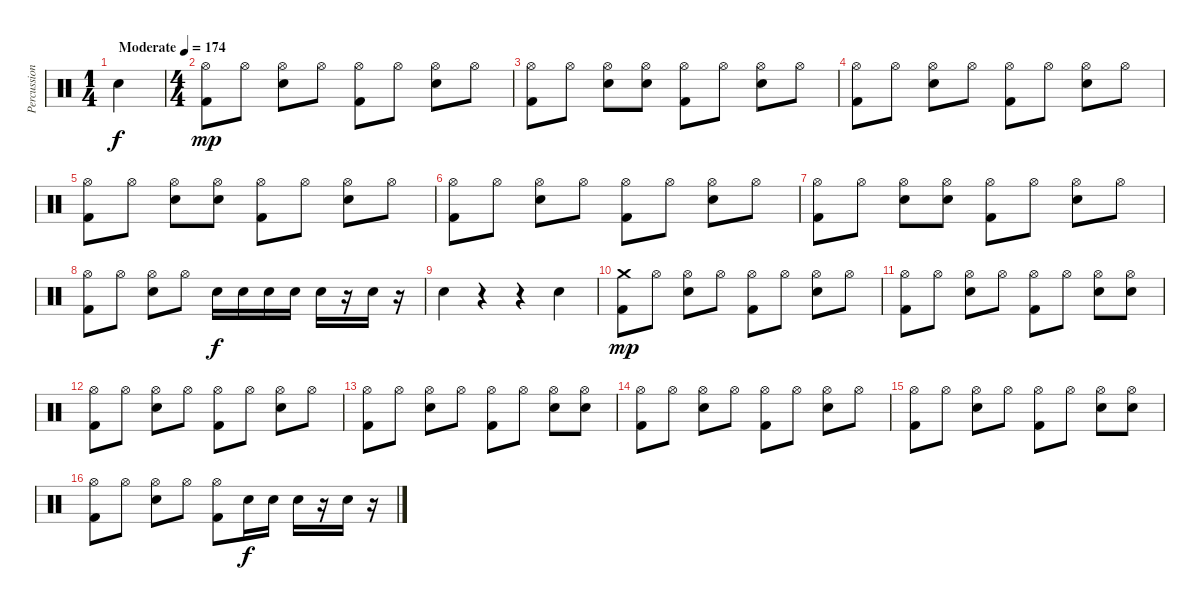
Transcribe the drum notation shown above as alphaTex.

\track ("Percussion" "Percussion") {instrument percussion}
\staff {score}
\articulation defaults
\ts (1 4)
\tempo (174 "Moderate")
\clef neutral
\ks c "Electric Snare (hit)".4{dy f}
|
\ts (4 4)
("Hi-Hat (open)" "Kick (hit) 2").8{dy mp} "Hi-Hat (open)".8 ("Hi-Hat (open)" "Electric Snare (hit)").8 "Hi-Hat (open)".8 ("Hi-Hat (open)" "Kick (hit) 2").8 "Hi-Hat (open)".8 ("Hi-Hat (open)" "Electric Snare (hit)").8 "Hi-Hat (open)".8 |
("Hi-Hat (open)" "Kick (hit) 2").8 "Hi-Hat (open)".8 ("Hi-Hat (open)" "Electric Snare (hit)").8 ("Hi-Hat (open)" "Electric Snare (hit)").8 ("Hi-Hat (open)" "Kick (hit) 2").8 "Hi-Hat (open)".8 ("Hi-Hat (open)" "Electric Snare (hit)").8 "Hi-Hat (open)".8 |
("Hi-Hat (open)" "Kick (hit) 2").8 "Hi-Hat (open)".8 ("Hi-Hat (open)" "Electric Snare (hit)").8 "Hi-Hat (open)".8 ("Hi-Hat (open)" "Kick (hit) 2").8 "Hi-Hat (open)".8 ("Hi-Hat (open)" "Electric Snare (hit)").8 "Hi-Hat (open)".8 |
("Hi-Hat (open)" "Kick (hit) 2").8 "Hi-Hat (open)".8 ("Hi-Hat (open)" "Electric Snare (hit)").8 ("Hi-Hat (open)" "Electric Snare (hit)").8 ("Hi-Hat (open)" "Kick (hit) 2").8 "Hi-Hat (open)".8 ("Hi-Hat (open)" "Electric Snare (hit)").8 "Hi-Hat (open)".8 |
("Hi-Hat (open)" "Kick (hit) 2").8 "Hi-Hat (open)".8 ("Hi-Hat (open)" "Electric Snare (hit)").8 "Hi-Hat (open)".8 ("Hi-Hat (open)" "Kick (hit) 2").8 "Hi-Hat (open)".8 ("Hi-Hat (open)" "Electric Snare (hit)").8 "Hi-Hat (open)".8 |
("Hi-Hat (open)" "Kick (hit) 2").8 "Hi-Hat (open)".8 ("Hi-Hat (open)" "Electric Snare (hit)").8 ("Hi-Hat (open)" "Electric Snare (hit)").8 ("Hi-Hat (open)" "Kick (hit) 2").8 "Hi-Hat (open)".8 ("Hi-Hat (open)" "Electric Snare (hit)").8 "Hi-Hat (open)".8 |
("Hi-Hat (open)" "Kick (hit) 2").8 "Hi-Hat (open)".8 ("Hi-Hat (open)" "Electric Snare (hit)").8 "Hi-Hat (open)".8 "Electric Snare (hit)".16{dy f} "Electric Snare (hit)".16 "Electric Snare (hit)".16 "Electric Snare (hit)".16 "Electric Snare (hit)".16 r.16 "Electric Snare (hit)".16 r.16 |
"Electric Snare (hit)".4 r.4 r.4 "Electric Snare (hit)".4 |
("Crash medium (hit)" "Kick (hit) 2").8{dy mp} "Hi-Hat (open)".8 ("Hi-Hat (open)" "Electric Snare (hit)").8 "Hi-Hat (open)".8 ("Hi-Hat (open)" "Kick (hit) 2").8 "Hi-Hat (open)".8 ("Hi-Hat (open)" "Electric Snare (hit)").8 "Hi-Hat (open)".8 |
("Hi-Hat (open)" "Kick (hit) 2").8 "Hi-Hat (open)".8 ("Hi-Hat (open)" "Electric Snare (hit)").8 "Hi-Hat (open)".8 ("Hi-Hat (open)" "Kick (hit) 2").8 "Hi-Hat (open)".8 ("Hi-Hat (open)" "Electric Snare (hit)").8 ("Hi-Hat (open)" "Electric Snare (hit)").8 |
("Hi-Hat (open)" "Kick (hit) 2").8 "Hi-Hat (open)".8 ("Hi-Hat (open)" "Electric Snare (hit)").8 "Hi-Hat (open)".8 ("Hi-Hat (open)" "Kick (hit) 2").8 "Hi-Hat (open)".8 ("Hi-Hat (open)" "Electric Snare (hit)").8 "Hi-Hat (open)".8 |
("Hi-Hat (open)" "Kick (hit) 2").8 "Hi-Hat (open)".8 ("Hi-Hat (open)" "Electric Snare (hit)").8 "Hi-Hat (open)".8 ("Hi-Hat (open)" "Kick (hit) 2").8 "Hi-Hat (open)".8 ("Hi-Hat (open)" "Electric Snare (hit)").8 ("Hi-Hat (open)" "Electric Snare (hit)").8 |
("Hi-Hat (open)" "Kick (hit) 2").8 "Hi-Hat (open)".8 ("Hi-Hat (open)" "Electric Snare (hit)").8 "Hi-Hat (open)".8 ("Hi-Hat (open)" "Kick (hit) 2").8 "Hi-Hat (open)".8 ("Hi-Hat (open)" "Electric Snare (hit)").8 "Hi-Hat (open)".8 |
("Hi-Hat (open)" "Kick (hit) 2").8 "Hi-Hat (open)".8 ("Hi-Hat (open)" "Electric Snare (hit)").8 "Hi-Hat (open)".8 ("Hi-Hat (open)" "Kick (hit) 2").8 "Hi-Hat (open)".8 ("Hi-Hat (open)" "Electric Snare (hit)").8 ("Hi-Hat (open)" "Electric Snare (hit)").8 |
("Hi-Hat (open)" "Kick (hit) 2").8 "Hi-Hat (open)".8 ("Hi-Hat (open)" "Electric Snare (hit)").8 "Hi-Hat (open)".8 ("Hi-Hat (open)" "Kick (hit) 2").8 "Electric Snare (hit)".16{dy f} "Electric Snare (hit)".16 "Electric Snare (hit)".16 r.16 "Electric Snare (hit)".16 r.16
